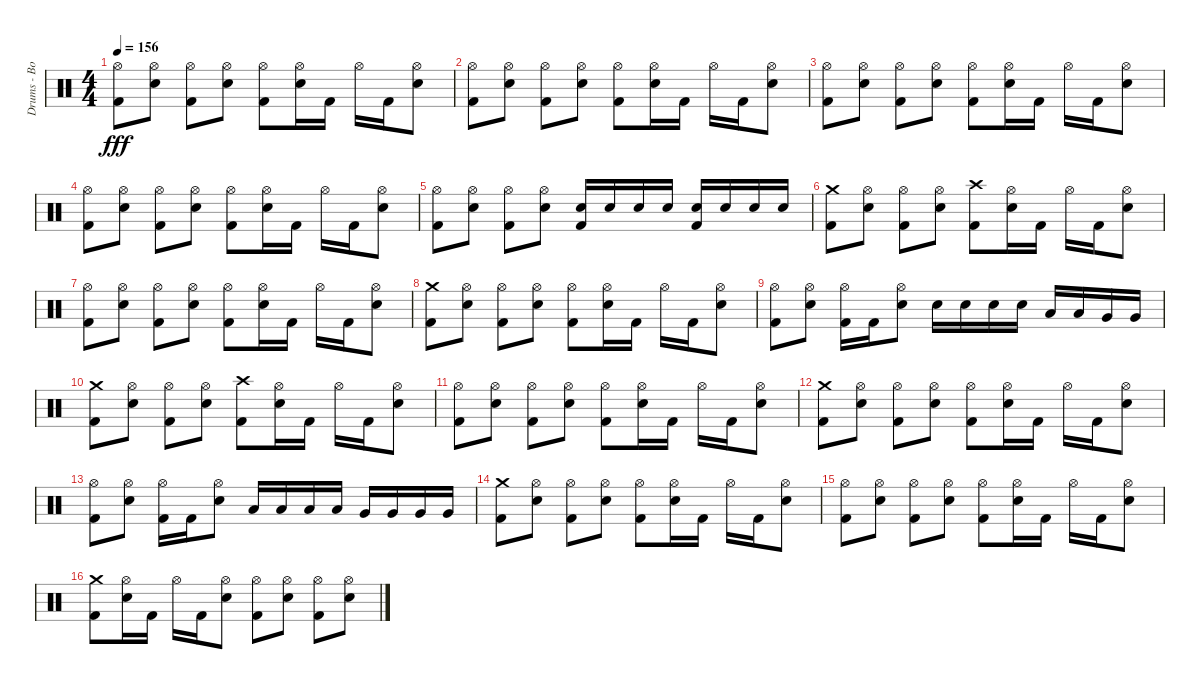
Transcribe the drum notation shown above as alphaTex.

\track ("Drums - Bobby Schayer" "Drums - Bo") {instrument percussion}
\staff {score}
\articulation defaults
\ts (4 4)
\tempo 156
\clef neutral
\ks c
("Kick (hit) 2" "Hi-Hat (open)").8{dy fff} ("Electric Snare (hit)" "Hi-Hat (open)").8 ("Kick (hit) 2" "Hi-Hat (open)").8 ("Electric Snare (hit)" "Hi-Hat (open)").8 ("Kick (hit) 2" "Hi-Hat (open)").8 ("Electric Snare (hit)" "Hi-Hat (open)").16 "Kick (hit) 2".16 "Hi-Hat (open)".16 "Kick (hit) 2".16 ("Electric Snare (hit)" "Hi-Hat (open)").8 |
("Kick (hit) 2" "Hi-Hat (open)").8 ("Electric Snare (hit)" "Hi-Hat (open)").8 ("Kick (hit) 2" "Hi-Hat (open)").8 ("Electric Snare (hit)" "Hi-Hat (open)").8 ("Kick (hit) 2" "Hi-Hat (open)").8 ("Electric Snare (hit)" "Hi-Hat (open)").16 "Kick (hit) 2".16 "Hi-Hat (open)".16 "Kick (hit) 2".16 ("Electric Snare (hit)" "Hi-Hat (open)").8 |
("Kick (hit) 2" "Hi-Hat (open)").8 ("Electric Snare (hit)" "Hi-Hat (open)").8 ("Kick (hit) 2" "Hi-Hat (open)").8 ("Electric Snare (hit)" "Hi-Hat (open)").8 ("Kick (hit) 2" "Hi-Hat (open)").8 ("Electric Snare (hit)" "Hi-Hat (open)").16 "Kick (hit) 2".16 "Hi-Hat (open)".16 "Kick (hit) 2".16 ("Electric Snare (hit)" "Hi-Hat (open)").8 |
("Kick (hit) 2" "Hi-Hat (open)").8 ("Electric Snare (hit)" "Hi-Hat (open)").8 ("Kick (hit) 2" "Hi-Hat (open)").8 ("Electric Snare (hit)" "Hi-Hat (open)").8 ("Kick (hit) 2" "Hi-Hat (open)").8 ("Electric Snare (hit)" "Hi-Hat (open)").16 "Kick (hit) 2".16 "Hi-Hat (open)".16 "Kick (hit) 2".16 ("Electric Snare (hit)" "Hi-Hat (open)").8 |
("Kick (hit) 2" "Hi-Hat (open)").8 ("Electric Snare (hit)" "Hi-Hat (open)").8 ("Kick (hit) 2" "Hi-Hat (open)").8 ("Electric Snare (hit)" "Hi-Hat (open)").8 ("Electric Snare (hit)" "Kick (hit) 2").16 "Electric Snare (hit)".16 "Electric Snare (hit)".16 "Electric Snare (hit)".16 ("Electric Snare (hit)" "Kick (hit) 2").16 "Electric Snare (hit)".16 "Electric Snare (hit)".16 "Electric Snare (hit)".16 |
("Kick (hit) 2" "Crash medium (hit)").8 ("Electric Snare (hit)" "Hi-Hat (open)").8 ("Kick (hit) 2" "Hi-Hat (open)").8 ("Electric Snare (hit)" "Hi-Hat (open)").8 ("Kick (hit) 2" "Crash high (hit)").8 ("Electric Snare (hit)" "Hi-Hat (open)").16 "Kick (hit) 2".16 "Hi-Hat (open)".16 "Kick (hit) 2".16 ("Electric Snare (hit)" "Hi-Hat (open)").8 |
("Kick (hit) 2" "Hi-Hat (open)").8 ("Electric Snare (hit)" "Hi-Hat (open)").8 ("Kick (hit) 2" "Hi-Hat (open)").8 ("Electric Snare (hit)" "Hi-Hat (open)").8 ("Kick (hit) 2" "Hi-Hat (open)").8 ("Electric Snare (hit)" "Hi-Hat (open)").16 "Kick (hit) 2".16 "Hi-Hat (open)".16 "Kick (hit) 2".16 ("Electric Snare (hit)" "Hi-Hat (open)").8 |
("Kick (hit) 2" "Crash medium (hit)").8 ("Electric Snare (hit)" "Hi-Hat (open)").8 ("Kick (hit) 2" "Hi-Hat (open)").8 ("Electric Snare (hit)" "Hi-Hat (open)").8 ("Kick (hit) 2" "Hi-Hat (open)").8 ("Electric Snare (hit)" "Hi-Hat (open)").16 "Kick (hit) 2".16 "Hi-Hat (open)".16 "Kick (hit) 2".16 ("Electric Snare (hit)" "Hi-Hat (open)").8 |
("Kick (hit) 2" "Hi-Hat (open)").8 ("Electric Snare (hit)" "Hi-Hat (open)").8 ("Hi-Hat (open)" "Kick (hit) 2").16 "Kick (hit) 2".16 ("Electric Snare (hit)" "Hi-Hat (open)").8 "Electric Snare (hit)".16 "Electric Snare (hit)".16 "Electric Snare (hit)".16 "Electric Snare (hit)".16 "Low Tom (hit)".16 "Low Tom (hit)".16 "Very Low Tom (hit)".16 "Very Low Tom (hit)".16 |
("Crash medium (hit)" "Kick (hit) 2").8 ("Electric Snare (hit)" "Hi-Hat (open)").8 ("Kick (hit) 2" "Hi-Hat (open)").8 ("Electric Snare (hit)" "Hi-Hat (open)").8 ("Crash high (hit)" "Kick (hit) 2").8 ("Electric Snare (hit)" "Hi-Hat (open)").16 "Kick (hit) 2".16 "Hi-Hat (open)".16 "Kick (hit) 2".16 ("Electric Snare (hit)" "Hi-Hat (open)").8 |
("Kick (hit) 2" "Hi-Hat (open)").8 ("Electric Snare (hit)" "Hi-Hat (open)").8 ("Kick (hit) 2" "Hi-Hat (open)").8 ("Electric Snare (hit)" "Hi-Hat (open)").8 ("Kick (hit) 2" "Hi-Hat (open)").8 ("Electric Snare (hit)" "Hi-Hat (open)").16 "Kick (hit) 2".16 "Hi-Hat (open)".16 "Kick (hit) 2".16 ("Electric Snare (hit)" "Hi-Hat (open)").8 |
("Crash medium (hit)" "Kick (hit) 2").8 ("Hi-Hat (open)" "Electric Snare (hit)").8 ("Hi-Hat (open)" "Kick (hit) 2").8 ("Hi-Hat (open)" "Electric Snare (hit)").8 ("Hi-Hat (open)" "Kick (hit) 2").8 ("Hi-Hat (open)" "Electric Snare (hit)").16 "Kick (hit) 2".16 "Hi-Hat (open)".16 "Kick (hit) 2".16 ("Hi-Hat (open)" "Electric Snare (hit)").8 |
("Kick (hit) 2" "Hi-Hat (open)").8 ("Electric Snare (hit)" "Hi-Hat (open)").8 ("Kick (hit) 2" "Hi-Hat (open)").16 "Kick (hit) 2".16 ("Electric Snare (hit)" "Hi-Hat (open)").8 "Low Tom (hit)".16 "Low Tom (hit)".16 "Low Tom (hit)".16 "Low Tom (hit)".16 "Very Low Tom (hit)".16 "Very Low Tom (hit)".16 "Very Low Tom (hit)".16 "Very Low Tom (hit)".16 |
("Kick (hit) 2" "Crash medium (hit)").8 ("Electric Snare (hit)" "Hi-Hat (open)").8 ("Kick (hit) 2" "Hi-Hat (open)").8 ("Electric Snare (hit)" "Hi-Hat (open)").8 ("Kick (hit) 2" "Hi-Hat (open)").8 ("Electric Snare (hit)" "Hi-Hat (open)").16 "Kick (hit) 2".16 "Hi-Hat (open)".16 "Kick (hit) 2".16 ("Electric Snare (hit)" "Hi-Hat (open)").8 |
("Kick (hit) 2" "Hi-Hat (open)").8 ("Electric Snare (hit)" "Hi-Hat (open)").8 ("Kick (hit) 2" "Hi-Hat (open)").8 ("Electric Snare (hit)" "Hi-Hat (open)").8 ("Kick (hit) 2" "Hi-Hat (open)").8 ("Electric Snare (hit)" "Hi-Hat (open)").16 "Kick (hit) 2".16 "Hi-Hat (open)".16 "Kick (hit) 2".16 ("Electric Snare (hit)" "Hi-Hat (open)").8 |
("Kick (hit) 2" "Crash medium (hit)").8 ("Electric Snare (hit)" "Hi-Hat (open)").16 "Kick (hit) 2".16 "Hi-Hat (open)".16 "Kick (hit) 2".16 ("Electric Snare (hit)" "Hi-Hat (open)").8 ("Kick (hit) 2" "Hi-Hat (open)").8 ("Electric Snare (hit)" "Hi-Hat (open)").8 ("Hi-Hat (open)" "Kick (hit) 2").8 ("Electric Snare (hit)" "Hi-Hat (open)").8
